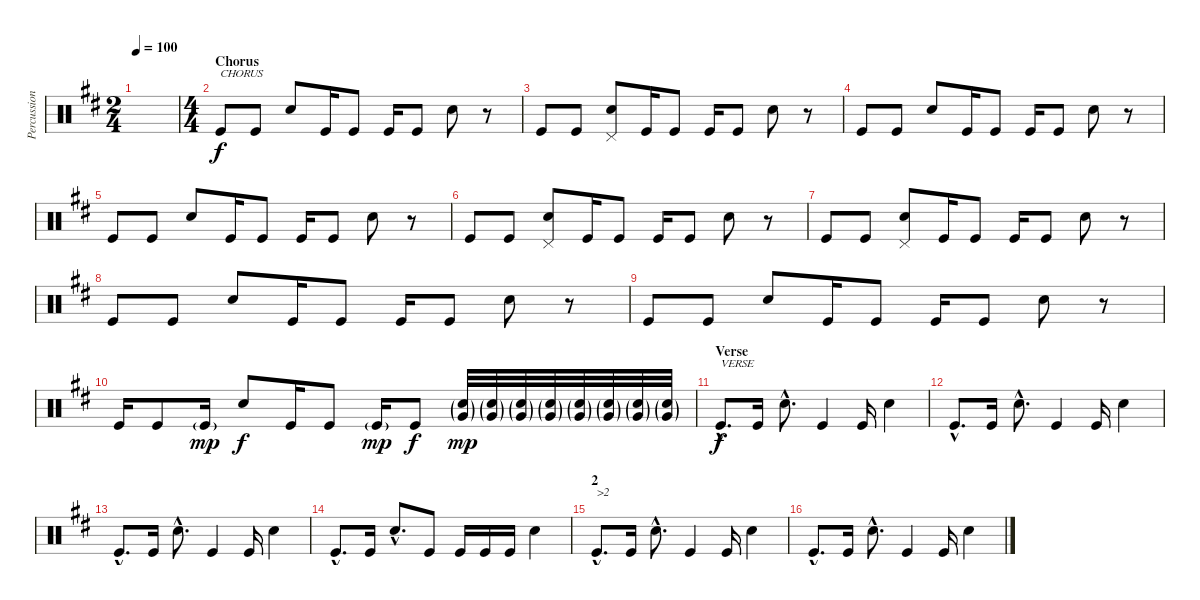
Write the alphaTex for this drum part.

\track ("Percussion" "Percussion") {instrument percussion}
\staff {score}
\articulation defaults
\ts (2 4)
\tempo 100
\clef neutral
\ks d
|
\ts (4 4)
\section ("" "Chorus")
"Kick (hit)".8{txt "CHORUS"} "Kick (hit)".8 "Electric Snare (hit)".8 "Kick (hit)".16 "Kick (hit)".8 "Kick (hit)".16 "Kick (hit)".8 "Electric Snare (hit)".8 r.8 |
"Kick (hit)".8 "Kick (hit)".8 ("Pedal Hi-Hat (hit)" "Electric Snare (hit)").8 "Kick (hit)".16 "Kick (hit)".8 "Kick (hit)".16 "Kick (hit)".8 "Electric Snare (hit)".8 r.8 |
"Kick (hit)".8 "Kick (hit)".8 "Electric Snare (hit)".8 "Kick (hit)".16 "Kick (hit)".8 "Kick (hit)".16 "Kick (hit)".8 "Electric Snare (hit)".8 r.8 |
"Kick (hit)".8 "Kick (hit)".8 "Electric Snare (hit)".8 "Kick (hit)".16 "Kick (hit)".8 "Kick (hit)".16 "Kick (hit)".8 "Electric Snare (hit)".8 r.8 |
"Kick (hit)".8 "Kick (hit)".8 ("Pedal Hi-Hat (hit)" "Electric Snare (hit)").8 "Kick (hit)".16 "Kick (hit)".8 "Kick (hit)".16 "Kick (hit)".8 "Electric Snare (hit)".8 r.8 |
"Kick (hit)".8 "Kick (hit)".8 ("Pedal Hi-Hat (hit)" "Electric Snare (hit)").8 "Kick (hit)".16 "Kick (hit)".8 "Kick (hit)".16 "Kick (hit)".8 "Electric Snare (hit)".8 r.8 |
"Kick (hit)".8 "Kick (hit)".8 "Electric Snare (hit)".8 "Kick (hit)".16 "Kick (hit)".8 "Kick (hit)".16 "Kick (hit)".8 "Electric Snare (hit)".8 r.8 |
"Kick (hit)".8 "Kick (hit)".8 "Electric Snare (hit)".8 "Kick (hit)".16 "Kick (hit)".8 "Kick (hit)".16 "Kick (hit)".8 "Electric Snare (hit)".8 r.8 |
"Kick (hit)".16 "Kick (hit)".8 "Kick (hit)"{g}.16{dy mp} "Electric Snare (hit)".8{dy f} "Kick (hit)".16 "Kick (hit)".8 "Kick (hit)"{g}.16{dy mp} "Kick (hit)".8{dy f} ("Electric Snare (hit)"{g} "Very Low Tom (hit)"{g}).32{dy mp} ("Electric Snare (hit)"{g} "Very Low Tom (hit)"{g}).32 ("Electric Snare (hit)"{g} "Very Low Tom (hit)"{g}).32 ("Electric Snare (hit)"{g} "Very Low Tom (hit)"{g}).32 ("Electric Snare (hit)"{g} "Very Low Tom (hit)"{g}).32 ("Electric Snare (hit)"{g} "Very Low Tom (hit)"{g}).32 ("Electric Snare (hit)"{g} "Very Low Tom (hit)"{g}).32 ("Electric Snare (hit)"{g} "Very Low Tom (hit)"{g}).32 |
\section ("" "Verse")
"Kick (hit)"{hac}.8{d txt "VERSE" dy f} "Kick (hit)".16 "Electric Snare (hit)"{hac}.8{d} "Kick (hit)".4 "Kick (hit)".16 "Electric Snare (hit)".4 |
"Kick (hit)"{hac}.8{d} "Kick (hit)".16 "Electric Snare (hit)"{hac}.8{d} "Kick (hit)".4 "Kick (hit)".16 "Electric Snare (hit)".4 |
"Kick (hit)"{hac}.8{d} "Kick (hit)".16 "Electric Snare (hit)"{hac}.8{d} "Kick (hit)".4 "Kick (hit)".16 "Electric Snare (hit)".4 |
"Kick (hit)"{hac}.8{d} "Kick (hit)".16 "Electric Snare (hit)"{hac}.8{d} "Kick (hit)".8 "Kick (hit)".16 "Kick (hit)".16 "Kick (hit)".16 "Electric Snare (hit)".4 |
\section ("" "2")
"Kick (hit)"{hac}.8{d txt ">2"} "Kick (hit)".16 "Electric Snare (hit)"{hac}.8{d} "Kick (hit)".4 "Kick (hit)".16 "Electric Snare (hit)".4 |
"Kick (hit)"{hac}.8{d} "Kick (hit)".16 "Electric Snare (hit)"{hac}.8{d} "Kick (hit)".4 "Kick (hit)".16 "Electric Snare (hit)".4
